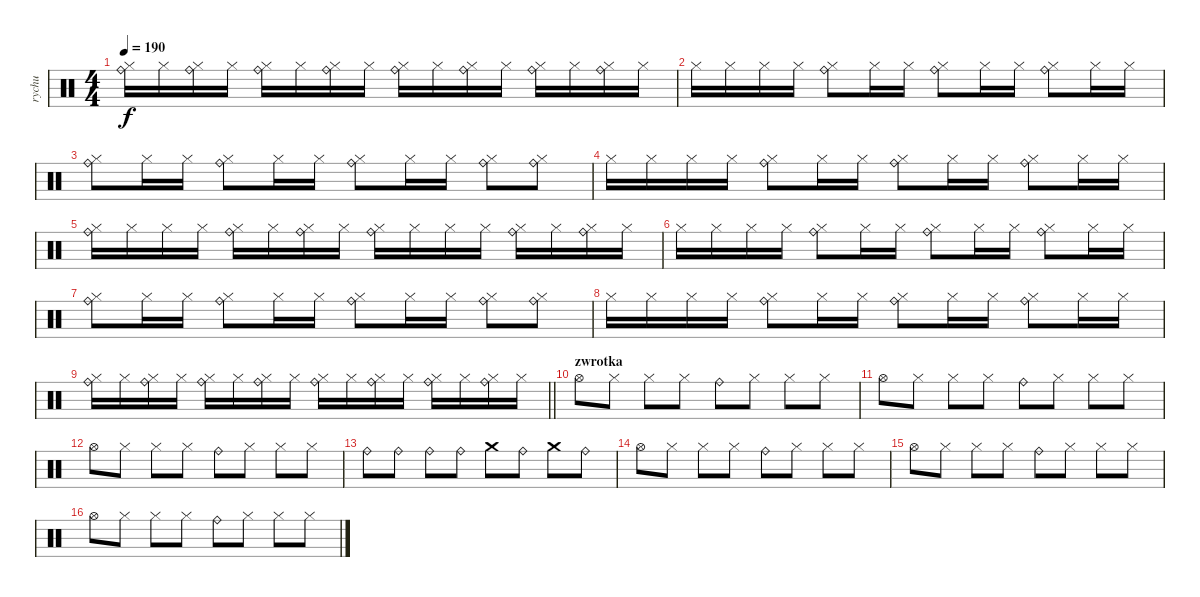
\track ("rychu" "rychu") {instrument percussion}
\staff {score}
\articulation defaults
\ts (4 4)
\tempo 190
\clef neutral
\ks c
("Ride (bell)" "Hi-Hat (closed)").16{dy f} "Hi-Hat (closed)".16 ("Ride (bell)" "Hi-Hat (closed)").16 "Hi-Hat (closed)".16 ("Ride (bell)" "Hi-Hat (closed)").16 "Hi-Hat (closed)".16 ("Ride (bell)" "Hi-Hat (closed)").16 "Hi-Hat (closed)".16 ("Ride (bell)" "Hi-Hat (closed)").16 "Hi-Hat (closed)".16 ("Ride (bell)" "Hi-Hat (closed)").16 "Hi-Hat (closed)".16 ("Ride (bell)" "Hi-Hat (closed)").16 "Hi-Hat (closed)".16 ("Ride (bell)" "Hi-Hat (closed)").16 "Hi-Hat (closed)".16 |
"Hi-Hat (closed)".16 "Hi-Hat (closed)".16 "Hi-Hat (closed)".16 "Hi-Hat (closed)".16 ("Ride (bell)" "Hi-Hat (closed)").8 "Hi-Hat (closed)".16 "Hi-Hat (closed)".16 ("Ride (bell)" "Hi-Hat (closed)").8 "Hi-Hat (closed)".16 "Hi-Hat (closed)".16 ("Ride (bell)" "Hi-Hat (closed)").8 "Hi-Hat (closed)".16 "Hi-Hat (closed)".16 |
("Ride (bell)" "Hi-Hat (closed)").8 "Hi-Hat (closed)".16 "Hi-Hat (closed)".16 ("Ride (bell)" "Hi-Hat (closed)").8 "Hi-Hat (closed)".16 "Hi-Hat (closed)".16 ("Ride (bell)" "Hi-Hat (closed)").8 "Hi-Hat (closed)".16 "Hi-Hat (closed)".16 ("Ride (bell)" "Hi-Hat (closed)").8 ("Ride (bell)" "Hi-Hat (closed)").8 |
"Hi-Hat (closed)".16 "Hi-Hat (closed)".16 "Hi-Hat (closed)".16 "Hi-Hat (closed)".16 ("Ride (bell)" "Hi-Hat (closed)").8 "Hi-Hat (closed)".16 "Hi-Hat (closed)".16 ("Ride (bell)" "Hi-Hat (closed)").8 "Hi-Hat (closed)".16 "Hi-Hat (closed)".16 ("Ride (bell)" "Hi-Hat (closed)").8 "Hi-Hat (closed)".16 "Hi-Hat (closed)".16 |
("Ride (bell)" "Hi-Hat (closed)").16 "Hi-Hat (closed)".16 "Hi-Hat (closed)".16 "Hi-Hat (closed)".16 ("Ride (bell)" "Hi-Hat (closed)").16 "Hi-Hat (closed)".16 ("Ride (bell)" "Hi-Hat (closed)").16 "Hi-Hat (closed)".16 ("Ride (bell)" "Hi-Hat (closed)").16 "Hi-Hat (closed)".16 "Hi-Hat (closed)".16 "Hi-Hat (closed)".16 ("Ride (bell)" "Hi-Hat (closed)").16 "Hi-Hat (closed)".16 ("Ride (bell)" "Hi-Hat (closed)").16 "Hi-Hat (closed)".16 |
"Hi-Hat (closed)".16 "Hi-Hat (closed)".16 "Hi-Hat (closed)".16 "Hi-Hat (closed)".16 ("Ride (bell)" "Hi-Hat (closed)").8 "Hi-Hat (closed)".16 "Hi-Hat (closed)".16 ("Ride (bell)" "Hi-Hat (closed)").8 "Hi-Hat (closed)".16 "Hi-Hat (closed)".16 ("Ride (bell)" "Hi-Hat (closed)").8 "Hi-Hat (closed)".16 "Hi-Hat (closed)".16 |
("Ride (bell)" "Hi-Hat (closed)").8 "Hi-Hat (closed)".16 "Hi-Hat (closed)".16 ("Ride (bell)" "Hi-Hat (closed)").8 "Hi-Hat (closed)".16 "Hi-Hat (closed)".16 ("Ride (bell)" "Hi-Hat (closed)").8 "Hi-Hat (closed)".16 "Hi-Hat (closed)".16 ("Ride (bell)" "Hi-Hat (closed)").8 ("Ride (bell)" "Hi-Hat (closed)").8 |
"Hi-Hat (closed)".16 "Hi-Hat (closed)".16 "Hi-Hat (closed)".16 "Hi-Hat (closed)".16 ("Ride (bell)" "Hi-Hat (closed)").8 "Hi-Hat (closed)".16 "Hi-Hat (closed)".16 ("Ride (bell)" "Hi-Hat (closed)").8 "Hi-Hat (closed)".16 "Hi-Hat (closed)".16 ("Ride (bell)" "Hi-Hat (closed)").8 "Hi-Hat (closed)".16 "Hi-Hat (closed)".16 |
\barLineRight lightlight
("Ride (bell)" "Hi-Hat (closed)").16 "Hi-Hat (closed)".16 ("Ride (bell)" "Hi-Hat (closed)").16 "Hi-Hat (closed)".16 ("Ride (bell)" "Hi-Hat (closed)").16 "Hi-Hat (closed)".16 ("Ride (bell)" "Hi-Hat (closed)").16 "Hi-Hat (closed)".16 ("Ride (bell)" "Hi-Hat (closed)").16 "Hi-Hat (closed)".16 ("Ride (bell)" "Hi-Hat (closed)").16 "Hi-Hat (closed)".16 ("Ride (bell)" "Hi-Hat (closed)").16 "Hi-Hat (closed)".16 ("Ride (bell)" "Hi-Hat (closed)").16 "Hi-Hat (closed)".16 |
\section ("" "zwrotka")
"Hi-Hat (open)".8 "Hi-Hat (closed)".8 "Hi-Hat (closed)".8 "Hi-Hat (closed)".8 "Ride (bell)".8 "Hi-Hat (closed)".8 "Hi-Hat (closed)".8 "Hi-Hat (closed)".8 |
"Hi-Hat (open)".8 "Hi-Hat (closed)".8 "Hi-Hat (closed)".8 "Hi-Hat (closed)".8 "Ride (bell)".8 "Hi-Hat (closed)".8 "Hi-Hat (closed)".8 "Hi-Hat (closed)".8 |
"Hi-Hat (open)".8 "Hi-Hat (closed)".8 "Hi-Hat (closed)".8 "Hi-Hat (closed)".8 "Ride (bell)".8 "Hi-Hat (closed)".8 "Hi-Hat (closed)".8 "Hi-Hat (closed)".8 |
"Ride (bell)".8 "Ride (bell)".8 "Ride (bell)".8 "Ride (bell)".8 "Crash medium (hit)".8 "Ride (bell)".8 "Crash medium (hit)".8 "Ride (bell)".8 |
"Hi-Hat (open)".8 "Hi-Hat (closed)".8 "Hi-Hat (closed)".8 "Hi-Hat (closed)".8 "Ride (bell)".8 "Hi-Hat (closed)".8 "Hi-Hat (closed)".8 "Hi-Hat (closed)".8 |
"Hi-Hat (open)".8 "Hi-Hat (closed)".8 "Hi-Hat (closed)".8 "Hi-Hat (closed)".8 "Ride (bell)".8 "Hi-Hat (closed)".8 "Hi-Hat (closed)".8 "Hi-Hat (closed)".8 |
"Hi-Hat (open)".8 "Hi-Hat (closed)".8 "Hi-Hat (closed)".8 "Hi-Hat (closed)".8 "Ride (bell)".8 "Hi-Hat (closed)".8 "Hi-Hat (closed)".8 "Hi-Hat (closed)".8
